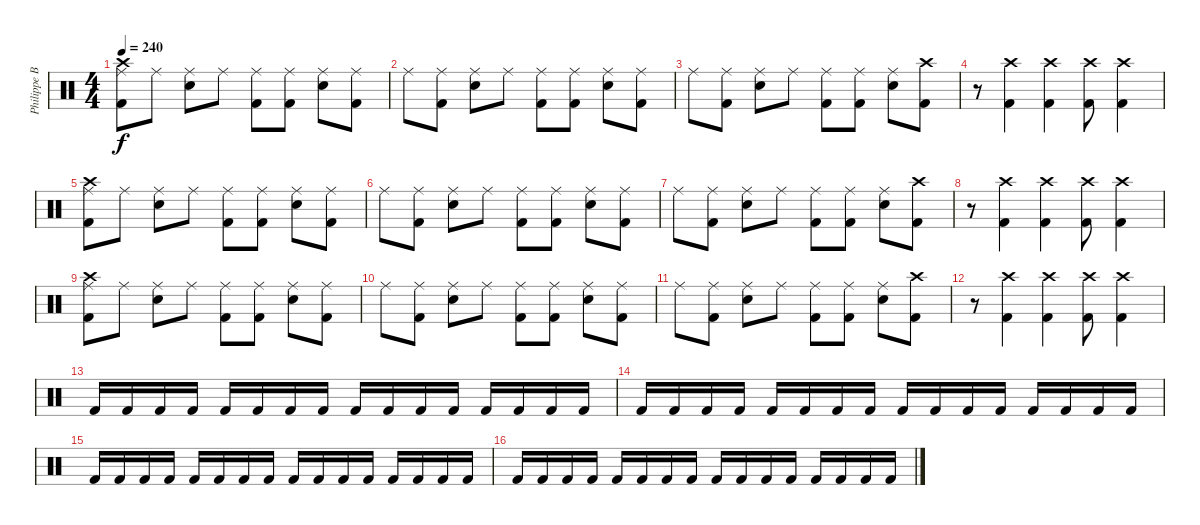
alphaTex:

\track ("Philippe Borda" "Philippe B") {instrument percussion}
\staff {score}
\articulation defaults
\ts (4 4)
\tempo 240
\clef neutral
\ks c
("Crash high (hit)" "Ride (middle)" "Kick (hit) 2").8{dy f} "Ride (middle)".8 ("Ride (middle)" "Snare (hit) 2").8 "Ride (middle)".8 ("Ride (middle)" "Kick (hit) 2").8 ("Ride (middle)" "Kick (hit) 2").8 ("Ride (middle)" "Snare (hit) 2").8 ("Ride (middle)" "Kick (hit) 2").8 |
"Ride (middle)".8 ("Ride (middle)" "Kick (hit) 2").8 ("Ride (middle)" "Snare (hit) 2").8 "Ride (middle)".8 ("Ride (middle)" "Kick (hit) 2").8 ("Ride (middle)" "Kick (hit) 2").8 ("Ride (middle)" "Snare (hit) 2").8 ("Ride (middle)" "Kick (hit) 2").8 |
"Ride (middle)".8 ("Ride (middle)" "Kick (hit) 2").8 ("Ride (middle)" "Snare (hit) 2").8 "Ride (middle)".8 ("Ride (middle)" "Kick (hit) 2").8 ("Ride (middle)" "Kick (hit) 2").8 ("Ride (middle)" "Snare (hit) 2").8 ("Crash high (hit)" "Kick (hit) 2").8 |
r.8 ("Crash high (hit)" "Kick (hit) 2").4 ("Crash high (hit)" "Kick (hit) 2").4 ("Crash high (hit)" "Kick (hit) 2").8 ("Crash high (hit)" "Kick (hit) 2").4 |
("Crash high (hit)" "Ride (middle)" "Kick (hit) 2").8 "Ride (middle)".8 ("Ride (middle)" "Snare (hit) 2").8 "Ride (middle)".8 ("Ride (middle)" "Kick (hit) 2").8 ("Ride (middle)" "Kick (hit) 2").8 ("Ride (middle)" "Snare (hit) 2").8 ("Ride (middle)" "Kick (hit) 2").8 |
"Ride (middle)".8 ("Ride (middle)" "Kick (hit) 2").8 ("Ride (middle)" "Snare (hit) 2").8 "Ride (middle)".8 ("Ride (middle)" "Kick (hit) 2").8 ("Ride (middle)" "Kick (hit) 2").8 ("Ride (middle)" "Snare (hit) 2").8 ("Ride (middle)" "Kick (hit) 2").8 |
"Ride (middle)".8 ("Ride (middle)" "Kick (hit) 2").8 ("Ride (middle)" "Snare (hit) 2").8 "Ride (middle)".8 ("Ride (middle)" "Kick (hit) 2").8 ("Ride (middle)" "Kick (hit) 2").8 ("Ride (middle)" "Snare (hit) 2").8 ("Crash high (hit)" "Kick (hit) 2").8 |
r.8 ("Crash high (hit)" "Kick (hit) 2").4 ("Crash high (hit)" "Kick (hit) 2").4 ("Crash high (hit)" "Kick (hit) 2").8 ("Crash high (hit)" "Kick (hit) 2").4 |
("Crash high (hit)" "Ride (middle)" "Kick (hit) 2").8 "Ride (middle)".8 ("Ride (middle)" "Snare (hit) 2").8 "Ride (middle)".8 ("Ride (middle)" "Kick (hit) 2").8 ("Ride (middle)" "Kick (hit) 2").8 ("Ride (middle)" "Snare (hit) 2").8 ("Ride (middle)" "Kick (hit) 2").8 |
"Ride (middle)".8 ("Ride (middle)" "Kick (hit) 2").8 ("Ride (middle)" "Snare (hit) 2").8 "Ride (middle)".8 ("Ride (middle)" "Kick (hit) 2").8 ("Ride (middle)" "Kick (hit) 2").8 ("Ride (middle)" "Snare (hit) 2").8 ("Ride (middle)" "Kick (hit) 2").8 |
"Ride (middle)".8 ("Ride (middle)" "Kick (hit) 2").8 ("Ride (middle)" "Snare (hit) 2").8 "Ride (middle)".8 ("Ride (middle)" "Kick (hit) 2").8 ("Ride (middle)" "Kick (hit) 2").8 ("Ride (middle)" "Snare (hit) 2").8 ("Crash high (hit)" "Kick (hit) 2").8 |
r.8 ("Crash high (hit)" "Kick (hit) 2").4 ("Crash high (hit)" "Kick (hit) 2").4 ("Crash high (hit)" "Kick (hit) 2").8 ("Crash high (hit)" "Kick (hit) 2").4 |
"Kick (hit) 2".16 "Kick (hit) 2".16 "Kick (hit) 2".16 "Kick (hit) 2".16 "Kick (hit) 2".16 "Kick (hit) 2".16 "Kick (hit) 2".16 "Kick (hit) 2".16 "Kick (hit) 2".16 "Kick (hit) 2".16 "Kick (hit) 2".16 "Kick (hit) 2".16 "Kick (hit) 2".16 "Kick (hit) 2".16 "Kick (hit) 2".16 "Kick (hit) 2".16 |
"Kick (hit) 2".16 "Kick (hit) 2".16 "Kick (hit) 2".16 "Kick (hit) 2".16 "Kick (hit) 2".16 "Kick (hit) 2".16 "Kick (hit) 2".16 "Kick (hit) 2".16 "Kick (hit) 2".16 "Kick (hit) 2".16 "Kick (hit) 2".16 "Kick (hit) 2".16 "Kick (hit) 2".16 "Kick (hit) 2".16 "Kick (hit) 2".16 "Kick (hit) 2".16 |
"Kick (hit) 2".16 "Kick (hit) 2".16 "Kick (hit) 2".16 "Kick (hit) 2".16 "Kick (hit) 2".16 "Kick (hit) 2".16 "Kick (hit) 2".16 "Kick (hit) 2".16 "Kick (hit) 2".16 "Kick (hit) 2".16 "Kick (hit) 2".16 "Kick (hit) 2".16 "Kick (hit) 2".16 "Kick (hit) 2".16 "Kick (hit) 2".16 "Kick (hit) 2".16 |
"Kick (hit) 2".16 "Kick (hit) 2".16 "Kick (hit) 2".16 "Kick (hit) 2".16 "Kick (hit) 2".16 "Kick (hit) 2".16 "Kick (hit) 2".16 "Kick (hit) 2".16 "Kick (hit) 2".16 "Kick (hit) 2".16 "Kick (hit) 2".16 "Kick (hit) 2".16 "Kick (hit) 2".16 "Kick (hit) 2".16 "Kick (hit) 2".16 "Kick (hit) 2".16
